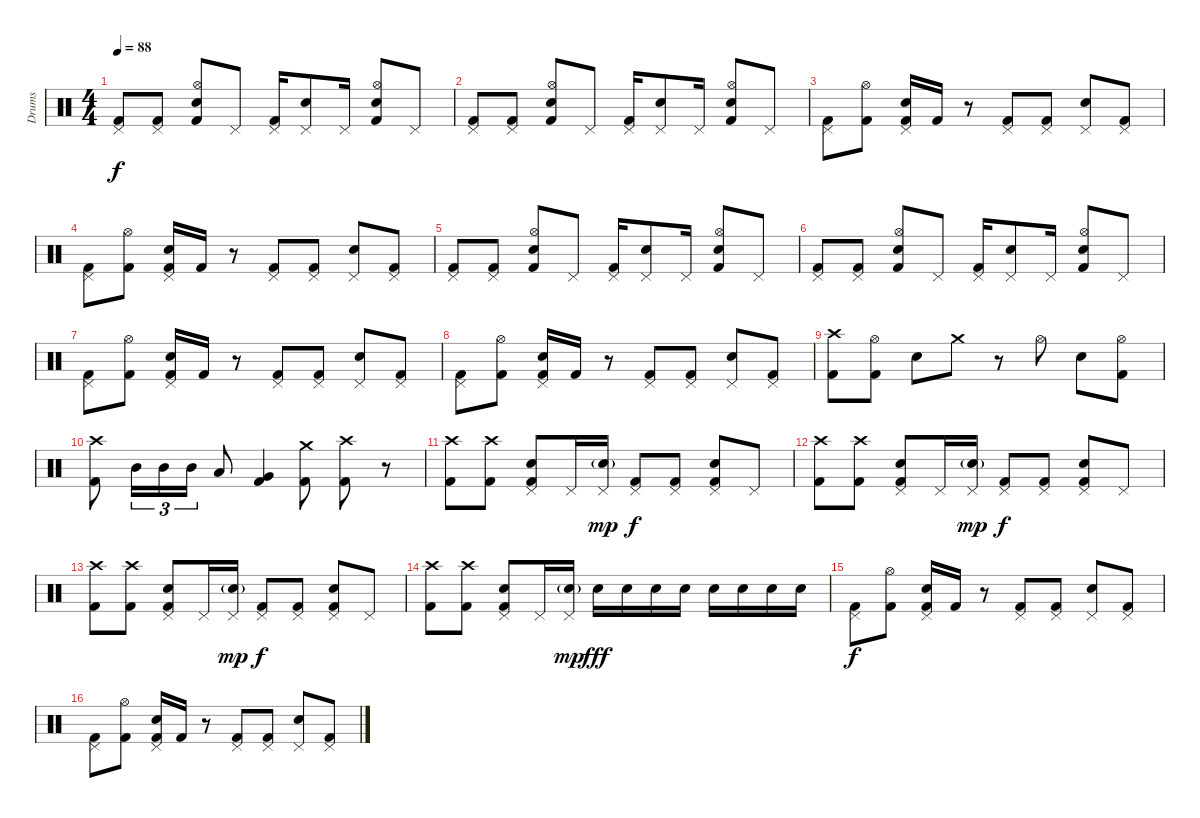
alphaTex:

\track ("Drums" "Drums") {instrument percussion}
\staff {score}
\articulation defaults
\ts (4 4)
\tempo 88
\clef neutral
\ks c
("Pedal Hi-Hat (hit)" "Kick (hit) 2").8{dy f} ("Pedal Hi-Hat (hit)" "Kick (hit) 2").8 ("Hi-Hat (open)" "Snare (hit) 2" "Kick (hit) 2").8 "Pedal Hi-Hat (hit)".8 ("Pedal Hi-Hat (hit)" "Kick (hit) 2").16 ("Pedal Hi-Hat (hit)" "Snare (hit) 2").8 "Pedal Hi-Hat (hit)".16 ("Hi-Hat (open)" "Snare (hit) 2" "Kick (hit) 2").8 "Pedal Hi-Hat (hit)".8 |
("Pedal Hi-Hat (hit)" "Kick (hit) 2").8 ("Pedal Hi-Hat (hit)" "Kick (hit) 2").8 ("Hi-Hat (open)" "Snare (hit) 2" "Kick (hit) 2").8 "Pedal Hi-Hat (hit)".8 ("Pedal Hi-Hat (hit)" "Kick (hit) 2").16 ("Pedal Hi-Hat (hit)" "Snare (hit) 2").8 "Pedal Hi-Hat (hit)".16 ("Hi-Hat (open)" "Snare (hit) 2" "Kick (hit) 2").8 "Pedal Hi-Hat (hit)".8 |
("Pedal Hi-Hat (hit)" "Kick (hit) 2").8 ("Hi-Hat (open)" "Kick (hit) 2").8 ("Pedal Hi-Hat (hit)" "Snare (hit) 2" "Kick (hit) 2").16 "Kick (hit) 2".16 r.8 ("Pedal Hi-Hat (hit)" "Kick (hit) 2").8 ("Pedal Hi-Hat (hit)" "Kick (hit) 2").8 ("Pedal Hi-Hat (hit)" "Snare (hit) 2").8 ("Pedal Hi-Hat (hit)" "Kick (hit) 2").8 |
("Pedal Hi-Hat (hit)" "Kick (hit) 2").8 ("Hi-Hat (open)" "Kick (hit) 2").8 ("Pedal Hi-Hat (hit)" "Snare (hit) 2" "Kick (hit) 2").16 "Kick (hit) 2".16 r.8 ("Pedal Hi-Hat (hit)" "Kick (hit) 2").8 ("Pedal Hi-Hat (hit)" "Kick (hit) 2").8 ("Pedal Hi-Hat (hit)" "Snare (hit) 2").8 ("Pedal Hi-Hat (hit)" "Kick (hit) 2").8 |
("Pedal Hi-Hat (hit)" "Kick (hit) 2").8 ("Pedal Hi-Hat (hit)" "Kick (hit) 2").8 ("Hi-Hat (open)" "Snare (hit) 2" "Kick (hit) 2").8 "Pedal Hi-Hat (hit)".8 ("Pedal Hi-Hat (hit)" "Kick (hit) 2").16 ("Pedal Hi-Hat (hit)" "Snare (hit) 2").8 "Pedal Hi-Hat (hit)".16 ("Hi-Hat (open)" "Snare (hit) 2" "Kick (hit) 2").8 "Pedal Hi-Hat (hit)".8 |
("Pedal Hi-Hat (hit)" "Kick (hit) 2").8 ("Pedal Hi-Hat (hit)" "Kick (hit) 2").8 ("Hi-Hat (open)" "Snare (hit) 2" "Kick (hit) 2").8 "Pedal Hi-Hat (hit)".8 ("Pedal Hi-Hat (hit)" "Kick (hit) 2").16 ("Pedal Hi-Hat (hit)" "Snare (hit) 2").8 "Pedal Hi-Hat (hit)".16 ("Hi-Hat (open)" "Snare (hit) 2" "Kick (hit) 2").8 "Pedal Hi-Hat (hit)".8 |
("Pedal Hi-Hat (hit)" "Kick (hit) 2").8 ("Hi-Hat (open)" "Kick (hit) 2").8 ("Pedal Hi-Hat (hit)" "Snare (hit) 2" "Kick (hit) 2").16 "Kick (hit) 2".16 r.8 ("Pedal Hi-Hat (hit)" "Kick (hit) 2").8 ("Pedal Hi-Hat (hit)" "Kick (hit) 2").8 ("Pedal Hi-Hat (hit)" "Snare (hit) 2").8 ("Pedal Hi-Hat (hit)" "Kick (hit) 2").8 |
("Pedal Hi-Hat (hit)" "Kick (hit) 2").8 ("Hi-Hat (open)" "Kick (hit) 2").8 ("Pedal Hi-Hat (hit)" "Snare (hit) 2" "Kick (hit) 2").16 "Kick (hit) 2".16 r.8 ("Pedal Hi-Hat (hit)" "Kick (hit) 2").8 ("Pedal Hi-Hat (hit)" "Kick (hit) 2").8 ("Pedal Hi-Hat (hit)" "Snare (hit) 2").8 ("Pedal Hi-Hat (hit)" "Kick (hit) 2").8 |
("Crash high (hit)" "Kick (hit) 2").8 ("Hi-Hat (open)" "Kick (hit) 2").8 "Snare (hit) 2".8 "Crash medium (hit)".8 r.8 "Hi-Hat (open)".8 "Snare (hit) 2".8 ("Hi-Hat (open)" "Kick (hit) 2").8 |
("Crash high (hit)" "Kick (hit) 2").8 "Mid Tom (hit)".16{tu (3 2)} "Mid Tom (hit)".16{tu (3 2)} "Mid Tom (hit)".16{tu (3 2)} "Low Tom (hit)".8 ("Very Low Tom (hit)" "Kick (hit) 2").4 ("Crash medium (hit)" "Kick (hit) 2").8 ("Crash high (hit)" "Kick (hit) 2").8 r.8 |
("Crash high (hit)" "Kick (hit) 2").8 ("Crash high (hit)" "Kick (hit) 2").8 ("Pedal Hi-Hat (hit)" "Snare (hit) 2" "Kick (hit) 2").8 "Pedal Hi-Hat (hit)".16 ("Pedal Hi-Hat (hit)" "Snare (hit) 2"{g}).16{dy mp} ("Pedal Hi-Hat (hit)" "Kick (hit) 2").8{dy f} ("Pedal Hi-Hat (hit)" "Kick (hit) 2").8 ("Pedal Hi-Hat (hit)" "Snare (hit) 2" "Kick (hit) 2").8 "Pedal Hi-Hat (hit)".8 |
("Crash high (hit)" "Kick (hit) 2").8 ("Crash high (hit)" "Kick (hit) 2").8 ("Pedal Hi-Hat (hit)" "Snare (hit) 2" "Kick (hit) 2").8 "Pedal Hi-Hat (hit)".16 ("Pedal Hi-Hat (hit)" "Snare (hit) 2"{g}).16{dy mp} ("Pedal Hi-Hat (hit)" "Kick (hit) 2").8{dy f} ("Pedal Hi-Hat (hit)" "Kick (hit) 2").8 ("Pedal Hi-Hat (hit)" "Snare (hit) 2" "Kick (hit) 2").8 "Pedal Hi-Hat (hit)".8 |
("Crash high (hit)" "Kick (hit) 2").8 ("Crash high (hit)" "Kick (hit) 2").8 ("Pedal Hi-Hat (hit)" "Snare (hit) 2" "Kick (hit) 2").8 "Pedal Hi-Hat (hit)".16 ("Pedal Hi-Hat (hit)" "Snare (hit) 2"{g}).16{dy mp} ("Pedal Hi-Hat (hit)" "Kick (hit) 2").8{dy f} ("Pedal Hi-Hat (hit)" "Kick (hit) 2").8 ("Pedal Hi-Hat (hit)" "Snare (hit) 2" "Kick (hit) 2").8 "Pedal Hi-Hat (hit)".8 |
("Crash high (hit)" "Kick (hit) 2").8 ("Crash high (hit)" "Kick (hit) 2").8 ("Pedal Hi-Hat (hit)" "Snare (hit) 2" "Kick (hit) 2").8 "Pedal Hi-Hat (hit)".16 ("Pedal Hi-Hat (hit)" "Snare (hit) 2"{g}).16{dy mp} "Snare (hit) 2".16{dy fff} "Snare (hit) 2".16 "Snare (hit) 2".16 "Snare (hit) 2".16 "Snare (hit) 2".16 "Snare (hit) 2".16 "Snare (hit) 2".16 "Snare (hit) 2".16 |
("Pedal Hi-Hat (hit)" "Kick (hit) 2").8{dy f} ("Hi-Hat (open)" "Kick (hit) 2").8 ("Pedal Hi-Hat (hit)" "Snare (hit) 2" "Kick (hit) 2").16 "Kick (hit) 2".16 r.8 ("Pedal Hi-Hat (hit)" "Kick (hit) 2").8 ("Pedal Hi-Hat (hit)" "Kick (hit) 2").8 ("Pedal Hi-Hat (hit)" "Snare (hit) 2").8 ("Pedal Hi-Hat (hit)" "Kick (hit) 2").8 |
("Pedal Hi-Hat (hit)" "Kick (hit) 2").8 ("Hi-Hat (open)" "Kick (hit) 2").8 ("Pedal Hi-Hat (hit)" "Snare (hit) 2" "Kick (hit) 2").16 "Kick (hit) 2".16 r.8 ("Pedal Hi-Hat (hit)" "Kick (hit) 2").8 ("Pedal Hi-Hat (hit)" "Kick (hit) 2").8 ("Pedal Hi-Hat (hit)" "Snare (hit) 2").8 ("Pedal Hi-Hat (hit)" "Kick (hit) 2").8
